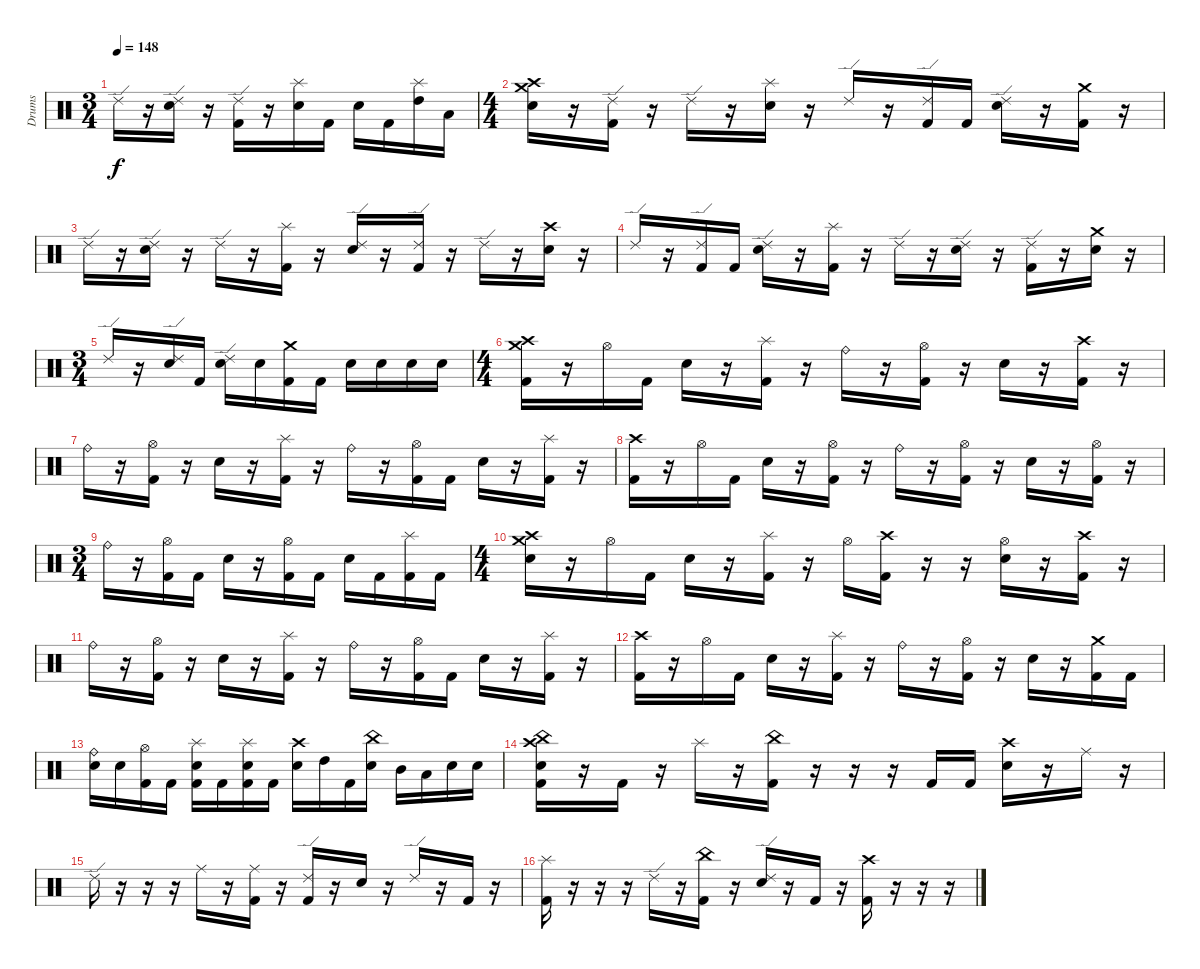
\track ("Drums" "Drums") {instrument percussion}
\staff {score}
\articulation defaults
\ts (3 4)
\tempo 148
\clef neutral
\ks c "Ride (edge) 2".16{dy f}
r.16 ("Ride (edge) 2" "Electric Snare (hit)").16 r.16 ("Ride (edge) 2" "Kick (hit) 2").16 r.16 ("Splash (hit)" "Electric Snare (hit)").16 "Kick (hit) 2".16 "Electric Snare (hit)".16 "Kick (hit) 2".16 ("Splash (hit)" "High Tom (hit)").16 "Low Tom (hit)".16 |
\ts (4 4)
("Crash medium (hit)" "Crash high (hit)" "Electric Snare (hit)").16 r.16 ("Ride (edge) 2" "Kick (hit) 2").16 r.16 "Ride (edge) 2".16 r.16 ("Splash (hit)" "Electric Snare (hit)").16 r.16 "Ride (edge) 2".16 r.16 ("Ride (edge) 2" "Kick (hit) 2").16 "Kick (hit) 2".16 ("Ride (edge) 2" "Electric Snare (hit)").16 r.16 ("Crash medium (hit)" "Kick (hit) 2").16 r.16 |
"Ride (edge) 2".16 r.16 ("Ride (edge) 2" "Electric Snare (hit)").16 r.16 "Ride (edge) 2".16 r.16 ("Splash (hit)" "Kick (hit) 2").16 r.16 ("Ride (edge) 2" "Electric Snare (hit)").16 r.16 ("Ride (edge) 2" "Kick (hit) 2").16 r.16 "Ride (edge) 2".16 r.16 ("Crash high (hit)" "Electric Snare (hit)").16 r.16 |
"Ride (edge) 2".16 r.16 ("Ride (edge) 2" "Kick (hit) 2").16 "Kick (hit) 2".16 ("Ride (edge) 2" "Electric Snare (hit)").16 r.16 ("Splash (hit)" "Kick (hit) 2").16 r.16 "Ride (edge) 2".16 r.16 ("Ride (edge) 2" "Electric Snare (hit)").16 r.16 ("Ride (edge) 2" "Kick (hit) 2").16 r.16 ("Crash medium (hit)" "Electric Snare (hit)").16 r.16 |
\ts (3 4)
"Ride (edge) 2".16 r.16 ("Ride (edge) 2" "Electric Snare (hit)").16 "Kick (hit) 2".16 ("Ride (edge) 2" "Electric Snare (hit)").16 "Electric Snare (hit)".16 ("Crash medium (hit)" "Kick (hit) 2").16 "Kick (hit) 2".16 "Electric Snare (hit)".16 "Electric Snare (hit)".16 "Electric Snare (hit)".16 "Electric Snare (hit)".16 |
\ts (4 4)
("Crash medium (hit)" "Crash high (hit)" "Kick (hit) 2").16 r.16 "Hi-Hat (open)".16 "Kick (hit) 2".16 "Electric Snare (hit)".16 r.16 ("Splash (hit)" "Kick (hit) 2").16 r.16 "Ride (bell)".16 r.16 ("Hi-Hat (open)" "Kick (hit) 2").16 r.16 "Electric Snare (hit)".16 r.16 ("Crash high (hit)" "Kick (hit) 2").16 r.16 |
"Ride (bell)".16 r.16 ("Hi-Hat (open)" "Kick (hit) 2").16 r.16 "Electric Snare (hit)".16 r.16 ("Splash (hit)" "Kick (hit) 2").16 r.16 "Ride (bell)".16 r.16 ("Hi-Hat (open)" "Kick (hit) 2").16 "Kick (hit) 2".16 "Electric Snare (hit)".16 r.16 ("Splash (hit)" "Kick (hit) 2").16 r.16 |
("Crash high (hit)" "Kick (hit) 2").16 r.16 "Hi-Hat (open)".16 "Kick (hit) 2".16 "Electric Snare (hit)".16 r.16 ("Hi-Hat (open)" "Kick (hit) 2").16 r.16 "Ride (bell)".16 r.16 ("Hi-Hat (open)" "Kick (hit) 2").16 r.16 "Electric Snare (hit)".16 r.16 ("Hi-Hat (open)" "Kick (hit) 2").16 r.16 |
\ts (3 4)
"Ride (bell)".16 r.16 ("Hi-Hat (open)" "Kick (hit) 2").16 "Kick (hit) 2".16 "Electric Snare (hit)".16 r.16 ("Hi-Hat (open)" "Kick (hit) 2").16 "Kick (hit) 2".16 "Electric Snare (hit)".16 "Kick (hit) 2".16 ("Splash (hit)" "Kick (hit) 2").16 "Kick (hit) 2".16 |
\ts (4 4)
("Crash medium (hit)" "Crash high (hit)" "Electric Snare (hit)").16 r.16 "Hi-Hat (open)".16 "Kick (hit) 2".16 "Electric Snare (hit)".16 r.16 ("Splash (hit)" "Kick (hit) 2").16 r.16 "Hi-Hat (open)".16 ("Crash high (hit)" "Kick (hit) 2").16 r.16 r.16 ("Hi-Hat (open)" "Electric Snare (hit)").16 r.16 ("Crash high (hit)" "Kick (hit) 2").16 r.16 |
"Ride (bell)".16 r.16 ("Hi-Hat (open)" "Kick (hit) 2").16 r.16 "Electric Snare (hit)".16 r.16 ("Splash (hit)" "Kick (hit) 2").16 r.16 "Ride (bell)".16 r.16 ("Hi-Hat (open)" "Kick (hit) 2").16 "Kick (hit) 2".16 "Electric Snare (hit)".16 r.16 ("Splash (hit)" "Kick (hit) 2").16 r.16 |
("Crash high (hit)" "Kick (hit) 2").16 r.16 "Hi-Hat (open)".16 "Kick (hit) 2".16 "Electric Snare (hit)".16 r.16 ("Splash (hit)" "Kick (hit) 2").16 r.16 "Ride (bell)".16 r.16 ("Hi-Hat (open)" "Kick (hit) 2").16 r.16 "Electric Snare (hit)".16 r.16 ("Crash medium (hit)" "Kick (hit) 2").16 "Kick (hit) 2".16 |
("Ride (bell)" "Electric Snare (hit)").16 "Electric Snare (hit)".16 ("Hi-Hat (open)" "Kick (hit) 2").16 "Kick (hit) 2".16 ("Splash (hit)" "Electric Snare (hit)" "Kick (hit) 2").16 "Kick (hit) 2".16 ("Splash (hit)" "Electric Snare (hit)" "Kick (hit) 2").16 "Kick (hit) 2".16 ("Crash high (hit)" "Electric Snare (hit)").16 "High Tom (hit)".16 "Kick (hit) 2".16 ("China (hit)" "Electric Snare (hit)").16 "Mid Tom (hit)".16 "Low Tom (hit)".16 "Electric Snare (hit)".16 "Electric Snare (hit)".16 |
("Crash high (hit)" "China (hit)" "Electric Snare (hit)" "Kick (hit) 2").16 r.16 "Kick (hit) 2".16 r.16 "Splash (hit)".16 r.16 ("China (hit)" "Kick (hit) 2").16 r.16 r.16 r.16 "Kick (hit) 2".16 "Kick (hit) 2".16 ("Crash high (hit)" "Electric Snare (hit)").16 r.16 "Ride (middle)".16 r.16 |
"Ride (edge) 2".16 r.16 r.16 r.16 "Ride (middle)".16 r.16 ("Ride (middle)" "Kick (hit) 2").16 r.16 ("Ride (edge) 2" "Kick (hit) 2").16 r.16 "Electric Snare (hit)".16 r.16 "Ride (edge) 2".16 r.16 "Kick (hit) 2".16 r.16 |
("Splash (hit)" "Kick (hit) 2").16 r.16 r.16 r.16 "Ride (edge) 2".16 r.16 ("China (hit)" "Kick (hit) 2").16 r.16 ("Ride (edge) 2" "Electric Snare (hit)").16 r.16 "Kick (hit) 2".16 r.16 ("Crash high (hit)" "Kick (hit) 2").16 r.16 r.16 r.16
